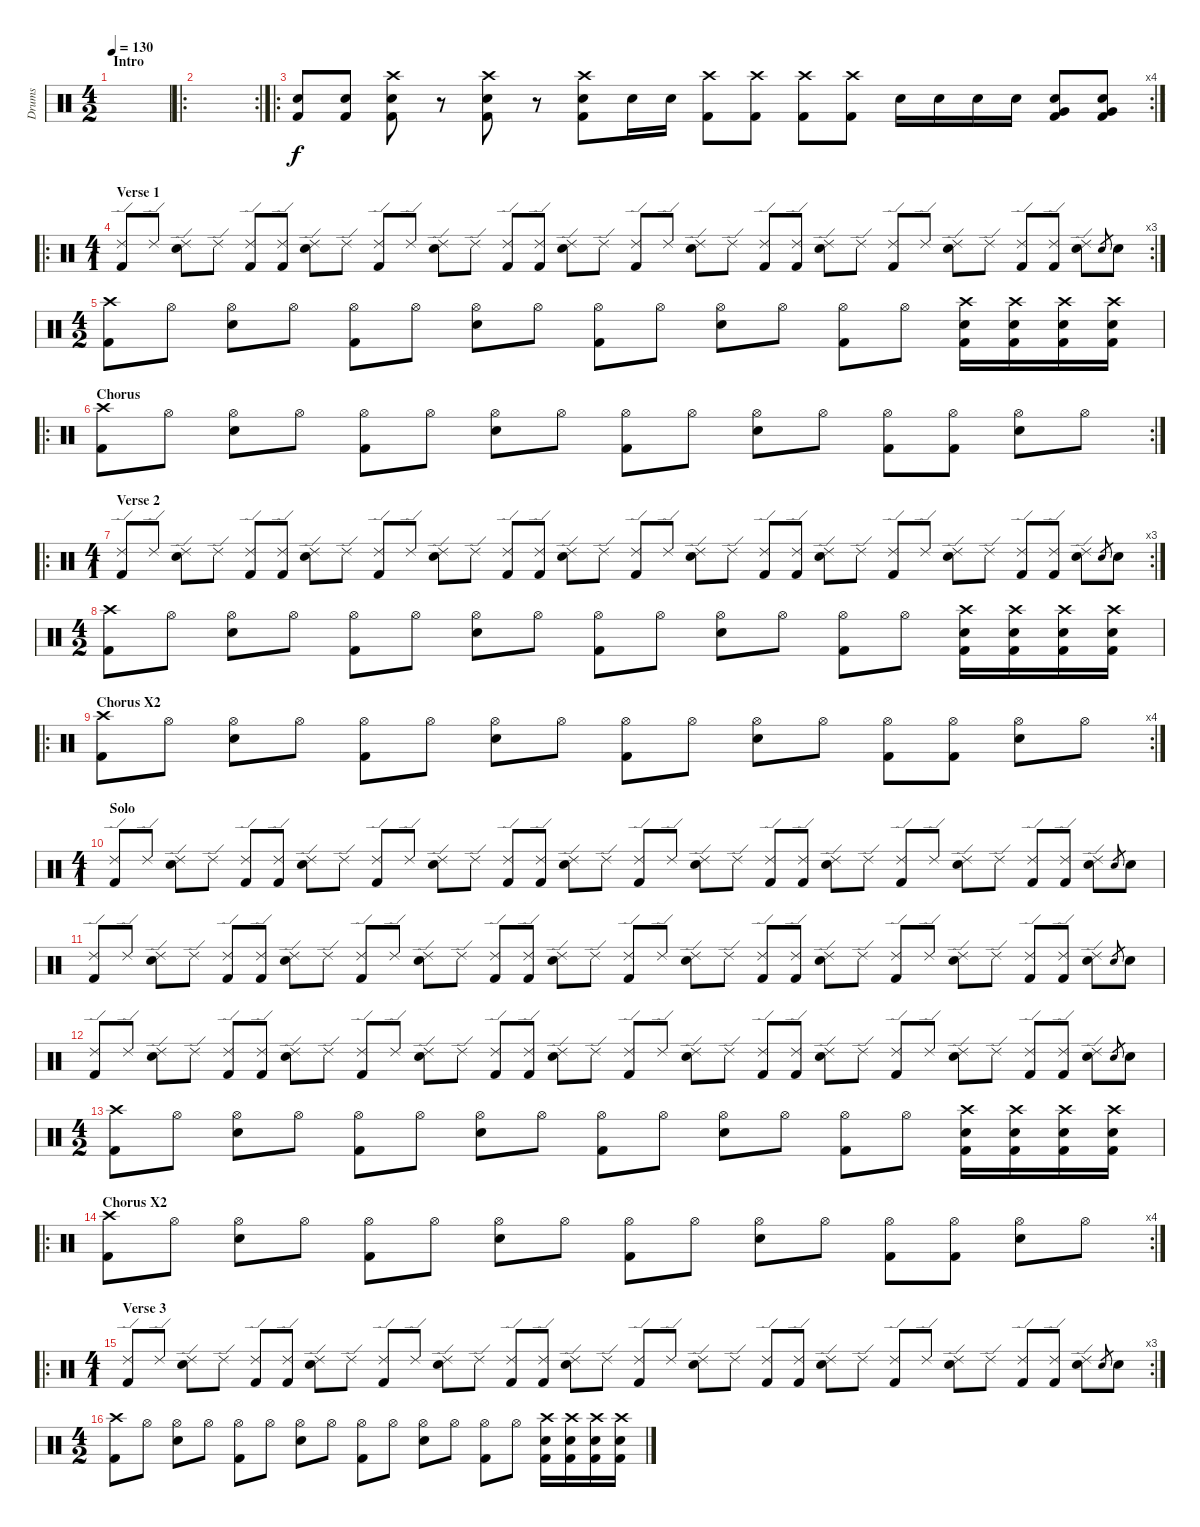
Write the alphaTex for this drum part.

\track ("Drums" "Drums") {instrument percussion}
\staff {score}
\articulation defaults
\ts (4 2)
\section ("" "Intro")
\tempo 130
\clef neutral
\ks c
|
\ro
\rc 2
|
\ro
\rc 4
("Kick (hit) 2" "Electric Snare (hit)").8 ("Kick (hit) 2" "Electric Snare (hit)").8 ("Crash high (hit)" "Electric Snare (hit)" "Kick (hit) 2").8 r.8 ("Crash high (hit)" "Electric Snare (hit)" "Kick (hit) 2").8 r.8 ("Crash high (hit)" "Electric Snare (hit)" "Kick (hit) 2").8 "Electric Snare (hit)".16 "Electric Snare (hit)".16 ("Crash high (hit)" "Kick (hit) 2").8 ("Crash high (hit)" "Kick (hit) 2").8 ("Crash high (hit)" "Kick (hit) 2").8 ("Crash high (hit)" "Kick (hit) 2").8 "Electric Snare (hit)".16 "Electric Snare (hit)".16 "Electric Snare (hit)".16 "Electric Snare (hit)".16 ("Kick (hit) 2" "Very Low Tom (hit)" "Electric Snare (hit)").8 ("Kick (hit) 2" "Very Low Tom (hit)" "Electric Snare (hit)").8 |
\ro
\rc 3
\ts (4 1)
\section ("" "Verse 1")
("Ride (edge) 2" "Kick (hit) 2").8 "Ride (edge) 2".8 ("Ride (edge) 2" "Electric Snare (hit)").8 "Ride (edge) 2".8 ("Ride (edge) 2" "Kick (hit) 2").8 ("Ride (edge) 2" "Kick (hit) 2").8 ("Ride (edge) 2" "Electric Snare (hit)").8 "Ride (edge) 2".8 ("Ride (edge) 2" "Kick (hit) 2").8 "Ride (edge) 2".8 ("Ride (edge) 2" "Electric Snare (hit)").8 "Ride (edge) 2".8 ("Ride (edge) 2" "Kick (hit) 2").8 ("Ride (edge) 2" "Kick (hit) 2").8 ("Ride (edge) 2" "Electric Snare (hit)").8 "Ride (edge) 2".8 ("Ride (edge) 2" "Kick (hit) 2").8 "Ride (edge) 2".8 ("Ride (edge) 2" "Electric Snare (hit)").8 "Ride (edge) 2".8 ("Ride (edge) 2" "Kick (hit) 2").8 ("Ride (edge) 2" "Kick (hit) 2").8 ("Ride (edge) 2" "Electric Snare (hit)").8 "Ride (edge) 2".8 ("Ride (edge) 2" "Kick (hit) 2").8 "Ride (edge) 2".8 ("Ride (edge) 2" "Electric Snare (hit)").8 "Ride (edge) 2".8 ("Ride (edge) 2" "Kick (hit) 2").8 ("Ride (edge) 2" "Kick (hit) 2").8 ("Ride (edge) 2" "Electric Snare (hit)").8 "Electric Snare (hit)".8{gr} "Electric Snare (hit)".8 |
\ts (4 2)
("Crash high (hit)" "Kick (hit) 2").8 "Hi-Hat (open)".8 ("Hi-Hat (open)" "Electric Snare (hit)").8 "Hi-Hat (open)".8 ("Hi-Hat (open)" "Kick (hit) 2").8 "Hi-Hat (open)".8 ("Hi-Hat (open)" "Electric Snare (hit)").8 "Hi-Hat (open)".8 ("Hi-Hat (open)" "Kick (hit) 2").8 "Hi-Hat (open)".8 ("Hi-Hat (open)" "Electric Snare (hit)").8 "Hi-Hat (open)".8 ("Hi-Hat (open)" "Kick (hit) 2").8 "Hi-Hat (open)".8 ("Crash high (hit)" "Electric Snare (hit)" "Kick (hit) 2").16 ("Crash high (hit)" "Electric Snare (hit)" "Kick (hit) 2").16 ("Crash high (hit)" "Electric Snare (hit)" "Kick (hit) 2").16 ("Crash high (hit)" "Electric Snare (hit)" "Kick (hit) 2").16 |
\ro
\rc 2
\section ("" "Chorus")
("Crash high (hit)" "Kick (hit) 2").8 "Hi-Hat (open)".8 ("Hi-Hat (open)" "Electric Snare (hit)").8 "Hi-Hat (open)".8 ("Hi-Hat (open)" "Kick (hit) 2").8 "Hi-Hat (open)".8 ("Hi-Hat (open)" "Electric Snare (hit)").8 "Hi-Hat (open)".8 ("Hi-Hat (open)" "Kick (hit) 2").8 "Hi-Hat (open)".8 ("Hi-Hat (open)" "Electric Snare (hit)").8 "Hi-Hat (open)".8 ("Hi-Hat (open)" "Kick (hit) 2").8 ("Hi-Hat (open)" "Kick (hit) 2").8 ("Hi-Hat (open)" "Electric Snare (hit)").8 "Hi-Hat (open)".8 |
\ro
\rc 3
\ts (4 1)
\section ("" "Verse 2")
("Ride (edge) 2" "Kick (hit) 2").8 "Ride (edge) 2".8 ("Ride (edge) 2" "Electric Snare (hit)").8 "Ride (edge) 2".8 ("Ride (edge) 2" "Kick (hit) 2").8 ("Ride (edge) 2" "Kick (hit) 2").8 ("Ride (edge) 2" "Electric Snare (hit)").8 "Ride (edge) 2".8 ("Ride (edge) 2" "Kick (hit) 2").8 "Ride (edge) 2".8 ("Ride (edge) 2" "Electric Snare (hit)").8 "Ride (edge) 2".8 ("Ride (edge) 2" "Kick (hit) 2").8 ("Ride (edge) 2" "Kick (hit) 2").8 ("Ride (edge) 2" "Electric Snare (hit)").8 "Ride (edge) 2".8 ("Ride (edge) 2" "Kick (hit) 2").8 "Ride (edge) 2".8 ("Ride (edge) 2" "Electric Snare (hit)").8 "Ride (edge) 2".8 ("Ride (edge) 2" "Kick (hit) 2").8 ("Ride (edge) 2" "Kick (hit) 2").8 ("Ride (edge) 2" "Electric Snare (hit)").8 "Ride (edge) 2".8 ("Ride (edge) 2" "Kick (hit) 2").8 "Ride (edge) 2".8 ("Ride (edge) 2" "Electric Snare (hit)").8 "Ride (edge) 2".8 ("Ride (edge) 2" "Kick (hit) 2").8 ("Ride (edge) 2" "Kick (hit) 2").8 ("Ride (edge) 2" "Electric Snare (hit)").8 "Electric Snare (hit)".8{gr} "Electric Snare (hit)".8 |
\ts (4 2)
("Crash high (hit)" "Kick (hit) 2").8 "Hi-Hat (open)".8 ("Hi-Hat (open)" "Electric Snare (hit)").8 "Hi-Hat (open)".8 ("Hi-Hat (open)" "Kick (hit) 2").8 "Hi-Hat (open)".8 ("Hi-Hat (open)" "Electric Snare (hit)").8 "Hi-Hat (open)".8 ("Hi-Hat (open)" "Kick (hit) 2").8 "Hi-Hat (open)".8 ("Hi-Hat (open)" "Electric Snare (hit)").8 "Hi-Hat (open)".8 ("Hi-Hat (open)" "Kick (hit) 2").8 "Hi-Hat (open)".8 ("Crash high (hit)" "Electric Snare (hit)" "Kick (hit) 2").16 ("Crash high (hit)" "Electric Snare (hit)" "Kick (hit) 2").16 ("Crash high (hit)" "Electric Snare (hit)" "Kick (hit) 2").16 ("Crash high (hit)" "Electric Snare (hit)" "Kick (hit) 2").16 |
\ro
\rc 4
\section ("" "Chorus X2")
("Crash high (hit)" "Kick (hit) 2").8 "Hi-Hat (open)".8 ("Hi-Hat (open)" "Electric Snare (hit)").8 "Hi-Hat (open)".8 ("Hi-Hat (open)" "Kick (hit) 2").8 "Hi-Hat (open)".8 ("Hi-Hat (open)" "Electric Snare (hit)").8 "Hi-Hat (open)".8 ("Hi-Hat (open)" "Kick (hit) 2").8 "Hi-Hat (open)".8 ("Hi-Hat (open)" "Electric Snare (hit)").8 "Hi-Hat (open)".8 ("Hi-Hat (open)" "Kick (hit) 2").8 ("Hi-Hat (open)" "Kick (hit) 2").8 ("Hi-Hat (open)" "Electric Snare (hit)").8 "Hi-Hat (open)".8 |
\ts (4 1)
\section ("" "Solo")
("Ride (edge) 2" "Kick (hit) 2").8 "Ride (edge) 2".8 ("Ride (edge) 2" "Electric Snare (hit)").8 "Ride (edge) 2".8 ("Ride (edge) 2" "Kick (hit) 2").8 ("Ride (edge) 2" "Kick (hit) 2").8 ("Ride (edge) 2" "Electric Snare (hit)").8 "Ride (edge) 2".8 ("Ride (edge) 2" "Kick (hit) 2").8 "Ride (edge) 2".8 ("Ride (edge) 2" "Electric Snare (hit)").8 "Ride (edge) 2".8 ("Ride (edge) 2" "Kick (hit) 2").8 ("Ride (edge) 2" "Kick (hit) 2").8 ("Ride (edge) 2" "Electric Snare (hit)").8 "Ride (edge) 2".8 ("Ride (edge) 2" "Kick (hit) 2").8 "Ride (edge) 2".8 ("Ride (edge) 2" "Electric Snare (hit)").8 "Ride (edge) 2".8 ("Ride (edge) 2" "Kick (hit) 2").8 ("Ride (edge) 2" "Kick (hit) 2").8 ("Ride (edge) 2" "Electric Snare (hit)").8 "Ride (edge) 2".8 ("Ride (edge) 2" "Kick (hit) 2").8 "Ride (edge) 2".8 ("Ride (edge) 2" "Electric Snare (hit)").8 "Ride (edge) 2".8 ("Ride (edge) 2" "Kick (hit) 2").8 ("Ride (edge) 2" "Kick (hit) 2").8 ("Ride (edge) 2" "Electric Snare (hit)").8 "Electric Snare (hit)".8{gr} "Electric Snare (hit)".8 |
("Ride (edge) 2" "Kick (hit) 2").8 "Ride (edge) 2".8 ("Ride (edge) 2" "Electric Snare (hit)").8 "Ride (edge) 2".8 ("Ride (edge) 2" "Kick (hit) 2").8 ("Ride (edge) 2" "Kick (hit) 2").8 ("Ride (edge) 2" "Electric Snare (hit)").8 "Ride (edge) 2".8 ("Ride (edge) 2" "Kick (hit) 2").8 "Ride (edge) 2".8 ("Ride (edge) 2" "Electric Snare (hit)").8 "Ride (edge) 2".8 ("Ride (edge) 2" "Kick (hit) 2").8 ("Ride (edge) 2" "Kick (hit) 2").8 ("Ride (edge) 2" "Electric Snare (hit)").8 "Ride (edge) 2".8 ("Ride (edge) 2" "Kick (hit) 2").8 "Ride (edge) 2".8 ("Ride (edge) 2" "Electric Snare (hit)").8 "Ride (edge) 2".8 ("Ride (edge) 2" "Kick (hit) 2").8 ("Ride (edge) 2" "Kick (hit) 2").8 ("Ride (edge) 2" "Electric Snare (hit)").8 "Ride (edge) 2".8 ("Ride (edge) 2" "Kick (hit) 2").8 "Ride (edge) 2".8 ("Ride (edge) 2" "Electric Snare (hit)").8 "Ride (edge) 2".8 ("Ride (edge) 2" "Kick (hit) 2").8 ("Ride (edge) 2" "Kick (hit) 2").8 ("Ride (edge) 2" "Electric Snare (hit)").8 "Electric Snare (hit)".8{gr} "Electric Snare (hit)".8 |
("Ride (edge) 2" "Kick (hit) 2").8 "Ride (edge) 2".8 ("Ride (edge) 2" "Electric Snare (hit)").8 "Ride (edge) 2".8 ("Ride (edge) 2" "Kick (hit) 2").8 ("Ride (edge) 2" "Kick (hit) 2").8 ("Ride (edge) 2" "Electric Snare (hit)").8 "Ride (edge) 2".8 ("Ride (edge) 2" "Kick (hit) 2").8 "Ride (edge) 2".8 ("Ride (edge) 2" "Electric Snare (hit)").8 "Ride (edge) 2".8 ("Ride (edge) 2" "Kick (hit) 2").8 ("Ride (edge) 2" "Kick (hit) 2").8 ("Ride (edge) 2" "Electric Snare (hit)").8 "Ride (edge) 2".8 ("Ride (edge) 2" "Kick (hit) 2").8 "Ride (edge) 2".8 ("Ride (edge) 2" "Electric Snare (hit)").8 "Ride (edge) 2".8 ("Ride (edge) 2" "Kick (hit) 2").8 ("Ride (edge) 2" "Kick (hit) 2").8 ("Ride (edge) 2" "Electric Snare (hit)").8 "Ride (edge) 2".8 ("Ride (edge) 2" "Kick (hit) 2").8 "Ride (edge) 2".8 ("Ride (edge) 2" "Electric Snare (hit)").8 "Ride (edge) 2".8 ("Ride (edge) 2" "Kick (hit) 2").8 ("Ride (edge) 2" "Kick (hit) 2").8 ("Ride (edge) 2" "Electric Snare (hit)").8 "Electric Snare (hit)".8{gr} "Electric Snare (hit)".8 |
\ts (4 2)
("Crash high (hit)" "Kick (hit) 2").8 "Hi-Hat (open)".8 ("Hi-Hat (open)" "Electric Snare (hit)").8 "Hi-Hat (open)".8 ("Hi-Hat (open)" "Kick (hit) 2").8 "Hi-Hat (open)".8 ("Hi-Hat (open)" "Electric Snare (hit)").8 "Hi-Hat (open)".8 ("Hi-Hat (open)" "Kick (hit) 2").8 "Hi-Hat (open)".8 ("Hi-Hat (open)" "Electric Snare (hit)").8 "Hi-Hat (open)".8 ("Hi-Hat (open)" "Kick (hit) 2").8 "Hi-Hat (open)".8 ("Crash high (hit)" "Electric Snare (hit)" "Kick (hit) 2").16 ("Crash high (hit)" "Electric Snare (hit)" "Kick (hit) 2").16 ("Crash high (hit)" "Electric Snare (hit)" "Kick (hit) 2").16 ("Crash high (hit)" "Electric Snare (hit)" "Kick (hit) 2").16 |
\ro
\rc 4
\section ("" "Chorus X2")
("Crash high (hit)" "Kick (hit) 2").8 "Hi-Hat (open)".8 ("Hi-Hat (open)" "Electric Snare (hit)").8 "Hi-Hat (open)".8 ("Hi-Hat (open)" "Kick (hit) 2").8 "Hi-Hat (open)".8 ("Hi-Hat (open)" "Electric Snare (hit)").8 "Hi-Hat (open)".8 ("Hi-Hat (open)" "Kick (hit) 2").8 "Hi-Hat (open)".8 ("Hi-Hat (open)" "Electric Snare (hit)").8 "Hi-Hat (open)".8 ("Hi-Hat (open)" "Kick (hit) 2").8 ("Hi-Hat (open)" "Kick (hit) 2").8 ("Hi-Hat (open)" "Electric Snare (hit)").8 "Hi-Hat (open)".8 |
\ro
\rc 3
\ts (4 1)
\section ("" "Verse 3")
("Ride (edge) 2" "Kick (hit) 2").8 "Ride (edge) 2".8 ("Ride (edge) 2" "Electric Snare (hit)").8 "Ride (edge) 2".8 ("Ride (edge) 2" "Kick (hit) 2").8 ("Ride (edge) 2" "Kick (hit) 2").8 ("Ride (edge) 2" "Electric Snare (hit)").8 "Ride (edge) 2".8 ("Ride (edge) 2" "Kick (hit) 2").8 "Ride (edge) 2".8 ("Ride (edge) 2" "Electric Snare (hit)").8 "Ride (edge) 2".8 ("Ride (edge) 2" "Kick (hit) 2").8 ("Ride (edge) 2" "Kick (hit) 2").8 ("Ride (edge) 2" "Electric Snare (hit)").8 "Ride (edge) 2".8 ("Ride (edge) 2" "Kick (hit) 2").8 "Ride (edge) 2".8 ("Ride (edge) 2" "Electric Snare (hit)").8 "Ride (edge) 2".8 ("Ride (edge) 2" "Kick (hit) 2").8 ("Ride (edge) 2" "Kick (hit) 2").8 ("Ride (edge) 2" "Electric Snare (hit)").8 "Ride (edge) 2".8 ("Ride (edge) 2" "Kick (hit) 2").8 "Ride (edge) 2".8 ("Ride (edge) 2" "Electric Snare (hit)").8 "Ride (edge) 2".8 ("Ride (edge) 2" "Kick (hit) 2").8 ("Ride (edge) 2" "Kick (hit) 2").8 ("Ride (edge) 2" "Electric Snare (hit)").8 "Electric Snare (hit)".8{gr} "Electric Snare (hit)".8 |
\ts (4 2)
("Crash high (hit)" "Kick (hit) 2").8 "Hi-Hat (open)".8 ("Hi-Hat (open)" "Electric Snare (hit)").8 "Hi-Hat (open)".8 ("Hi-Hat (open)" "Kick (hit) 2").8 "Hi-Hat (open)".8 ("Hi-Hat (open)" "Electric Snare (hit)").8 "Hi-Hat (open)".8 ("Hi-Hat (open)" "Kick (hit) 2").8 "Hi-Hat (open)".8 ("Hi-Hat (open)" "Electric Snare (hit)").8 "Hi-Hat (open)".8 ("Hi-Hat (open)" "Kick (hit) 2").8 "Hi-Hat (open)".8 ("Crash high (hit)" "Electric Snare (hit)" "Kick (hit) 2").16 ("Crash high (hit)" "Electric Snare (hit)" "Kick (hit) 2").16 ("Crash high (hit)" "Electric Snare (hit)" "Kick (hit) 2").16 ("Crash high (hit)" "Electric Snare (hit)" "Kick (hit) 2").16
